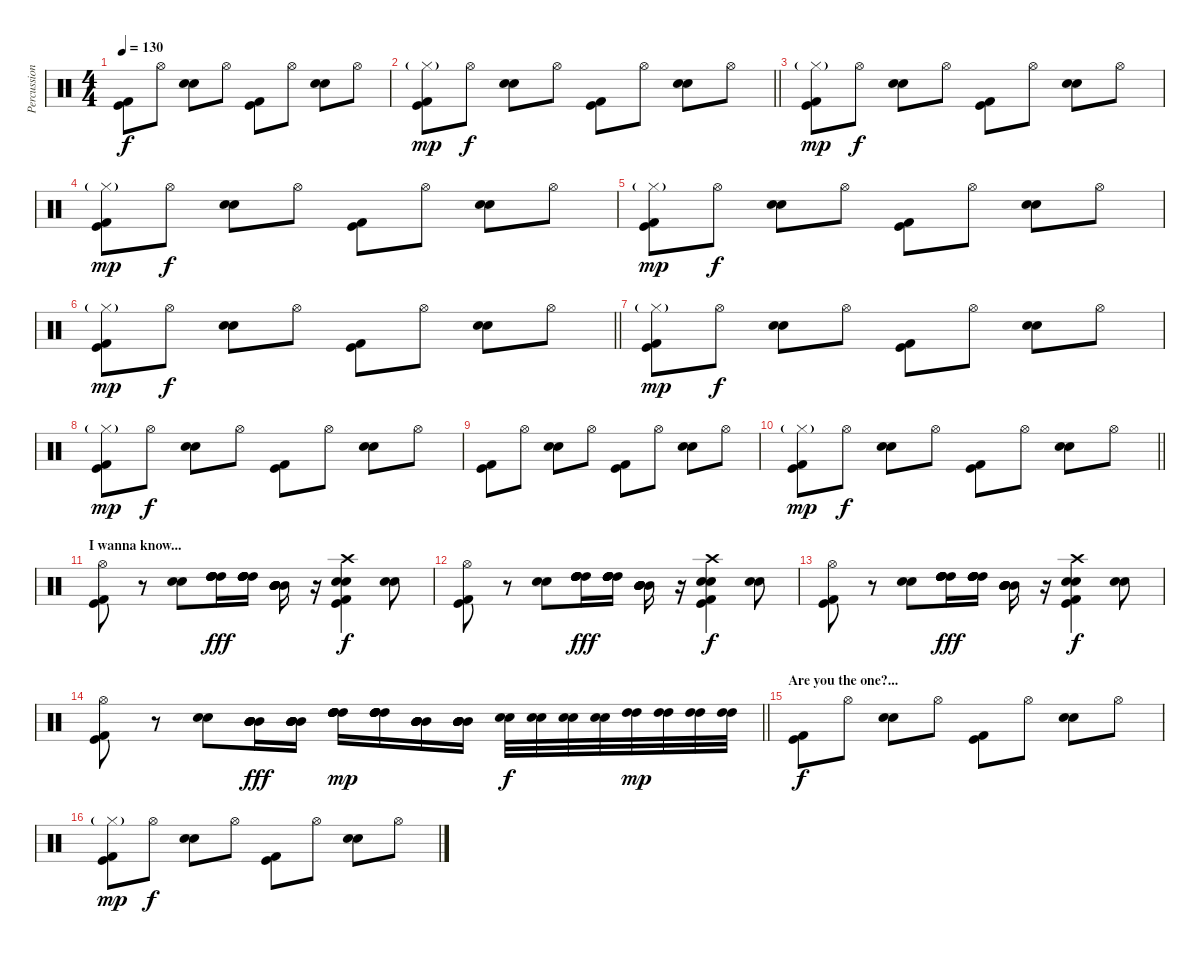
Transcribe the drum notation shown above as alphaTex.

\track ("Percussion" "Percussion") {instrument percussion}
\staff {score}
\articulation defaults
\ts (4 4)
\tempo 130
\clef neutral
\ks c
("Kick (hit) 2" "Kick (hit)").8{dy f} "Hi-Hat (open)".8 ("Electric Snare (hit)" "Snare (hit) 2").8 "Hi-Hat (open)".8 ("Kick (hit) 2" "Kick (hit)").8 "Hi-Hat (open)".8 ("Electric Snare (hit)" "Snare (hit) 2").8 "Hi-Hat (open)".8 |
\barLineRight lightlight
("Kick (hit) 2" "Kick (hit)" "Hi-Hat (closed)"{g}).8{dy mp} "Hi-Hat (open)".8{dy f} ("Electric Snare (hit)" "Snare (hit) 2").8 "Hi-Hat (open)".8 ("Kick (hit) 2" "Kick (hit)").8 "Hi-Hat (open)".8 ("Electric Snare (hit)" "Snare (hit) 2").8 "Hi-Hat (open)".8 |
("Kick (hit) 2" "Kick (hit)" "Hi-Hat (closed)"{g}).8{dy mp} "Hi-Hat (open)".8{dy f} ("Electric Snare (hit)" "Snare (hit) 2").8 "Hi-Hat (open)".8 ("Kick (hit) 2" "Kick (hit)").8 "Hi-Hat (open)".8 ("Electric Snare (hit)" "Snare (hit) 2").8 "Hi-Hat (open)".8 |
("Kick (hit) 2" "Kick (hit)" "Hi-Hat (closed)"{g}).8{dy mp} "Hi-Hat (open)".8{dy f} ("Electric Snare (hit)" "Snare (hit) 2").8 "Hi-Hat (open)".8 ("Kick (hit) 2" "Kick (hit)").8 "Hi-Hat (open)".8 ("Electric Snare (hit)" "Snare (hit) 2").8 "Hi-Hat (open)".8 |
("Kick (hit) 2" "Kick (hit)" "Hi-Hat (closed)"{g}).8{dy mp} "Hi-Hat (open)".8{dy f} ("Electric Snare (hit)" "Snare (hit) 2").8 "Hi-Hat (open)".8 ("Kick (hit) 2" "Kick (hit)").8 "Hi-Hat (open)".8 ("Electric Snare (hit)" "Snare (hit) 2").8 "Hi-Hat (open)".8 |
\barLineRight lightlight
("Kick (hit) 2" "Kick (hit)" "Hi-Hat (closed)"{g}).8{dy mp} "Hi-Hat (open)".8{dy f} ("Electric Snare (hit)" "Snare (hit) 2").8 "Hi-Hat (open)".8 ("Kick (hit) 2" "Kick (hit)").8 "Hi-Hat (open)".8 ("Electric Snare (hit)" "Snare (hit) 2").8 "Hi-Hat (open)".8 |
("Kick (hit) 2" "Kick (hit)" "Hi-Hat (closed)"{g}).8{dy mp} "Hi-Hat (open)".8{dy f} ("Electric Snare (hit)" "Snare (hit) 2").8 "Hi-Hat (open)".8 ("Kick (hit) 2" "Kick (hit)").8 "Hi-Hat (open)".8 ("Electric Snare (hit)" "Snare (hit) 2").8 "Hi-Hat (open)".8 |
("Kick (hit) 2" "Kick (hit)" "Hi-Hat (closed)"{g}).8{dy mp} "Hi-Hat (open)".8{dy f} ("Electric Snare (hit)" "Snare (hit) 2").8 "Hi-Hat (open)".8 ("Kick (hit) 2" "Kick (hit)").8 "Hi-Hat (open)".8 ("Electric Snare (hit)" "Snare (hit) 2").8 "Hi-Hat (open)".8 |
("Kick (hit) 2" "Kick (hit)").8 "Hi-Hat (open)".8 ("Electric Snare (hit)" "Snare (hit) 2").8 "Hi-Hat (open)".8 ("Kick (hit) 2" "Kick (hit)").8 "Hi-Hat (open)".8 ("Electric Snare (hit)" "Snare (hit) 2").8 "Hi-Hat (open)".8 |
\barLineRight lightlight
("Kick (hit) 2" "Kick (hit)" "Hi-Hat (closed)"{g}).8{dy mp} "Hi-Hat (open)".8{dy f} ("Electric Snare (hit)" "Snare (hit) 2").8 "Hi-Hat (open)".8 ("Kick (hit) 2" "Kick (hit)").8 "Hi-Hat (open)".8 ("Electric Snare (hit)" "Snare (hit) 2").8 "Hi-Hat (open)".8 |
\section ("" "I wanna know...")
("Kick (hit) 2" "Kick (hit)" "Hi-Hat (open)").8 r.8 ("Snare (hit) 2" "Electric Snare (hit)").8 ("High Tom (hit)" "High Tom (hit)" "High Tom (hit)" "High Tom (hit)" "High Tom (hit)" "High Tom (hit)").16{dy fff} ("High Tom (hit)" "High Tom (hit)" "High Tom (hit)" "High Tom (hit)" "High Tom (hit)" "High Tom (hit)").16 ("Mid Tom (hit)" "Mid Tom (hit)" "Mid Tom (hit)" "Mid Tom (hit)" "Mid Tom (hit)" "Mid Tom (hit)").16 r.16 ("Kick (hit) 2" "Kick (hit)" "Snare (hit) 2" "Electric Snare (hit)" "Crash high (hit)").4{dy f} ("Snare (hit) 2" "Electric Snare (hit)").8 |
("Kick (hit) 2" "Kick (hit)" "Hi-Hat (open)").8 r.8 ("Snare (hit) 2" "Electric Snare (hit)").8 ("High Tom (hit)" "High Tom (hit)" "High Tom (hit)" "High Tom (hit)" "High Tom (hit)" "High Tom (hit)").16{dy fff} ("High Tom (hit)" "High Tom (hit)" "High Tom (hit)" "High Tom (hit)" "High Tom (hit)" "High Tom (hit)").16 ("Mid Tom (hit)" "Mid Tom (hit)" "Mid Tom (hit)" "Mid Tom (hit)" "Mid Tom (hit)" "Mid Tom (hit)").16 r.16 ("Kick (hit) 2" "Kick (hit)" "Snare (hit) 2" "Electric Snare (hit)" "Crash high (hit)").4{dy f} ("Snare (hit) 2" "Electric Snare (hit)").8 |
("Kick (hit) 2" "Kick (hit)" "Hi-Hat (open)").8 r.8 ("Snare (hit) 2" "Electric Snare (hit)").8 ("High Tom (hit)" "High Tom (hit)" "High Tom (hit)" "High Tom (hit)" "High Tom (hit)" "High Tom (hit)").16{dy fff} ("High Tom (hit)" "High Tom (hit)" "High Tom (hit)" "High Tom (hit)" "High Tom (hit)" "High Tom (hit)").16 ("Mid Tom (hit)" "Mid Tom (hit)" "Mid Tom (hit)" "Mid Tom (hit)" "Mid Tom (hit)" "Mid Tom (hit)").16 r.16 ("Kick (hit) 2" "Kick (hit)" "Snare (hit) 2" "Electric Snare (hit)" "Crash high (hit)").4{dy f} ("Snare (hit) 2" "Electric Snare (hit)").8 |
\barLineRight lightlight
("Kick (hit) 2" "Kick (hit)" "Hi-Hat (open)").8 r.8 ("Snare (hit) 2" "Electric Snare (hit)").8 ("Mid Tom (hit)" "Mid Tom (hit)" "Mid Tom (hit)" "Mid Tom (hit)" "Mid Tom (hit)" "Mid Tom (hit)").16{dy fff} ("Mid Tom (hit)" "Mid Tom (hit)" "Mid Tom (hit)" "Mid Tom (hit)" "Mid Tom (hit)" "Mid Tom (hit)").16 ("High Tom (hit)" "High Tom (hit)" "High Tom (hit)" "High Tom (hit)" "High Tom (hit)" "High Tom (hit)").16{dy mp} ("High Tom (hit)" "High Tom (hit)" "High Tom (hit)" "High Tom (hit)" "High Tom (hit)" "High Tom (hit)").16 ("Mid Tom (hit)" "Mid Tom (hit)" "Mid Tom (hit)" "Mid Tom (hit)" "Mid Tom (hit)" "Mid Tom (hit)").16 ("Mid Tom (hit)" "Mid Tom (hit)" "Mid Tom (hit)" "Mid Tom (hit)" "Mid Tom (hit)" "Mid Tom (hit)").16 ("Snare (hit) 2" "Electric Snare (hit)").32{dy f} ("Snare (hit) 2" "Electric Snare (hit)").32 ("Snare (hit) 2" "Electric Snare (hit)").32 ("Snare (hit) 2" "Electric Snare (hit)").32 ("High Tom (hit)" "High Tom (hit)").32{dy mp} ("High Tom (hit)" "High Tom (hit)").32 ("High Tom (hit)" "High Tom (hit)").32 ("High Tom (hit)" "High Tom (hit)").32 |
\section ("" "Are you the one?...")
("Kick (hit) 2" "Kick (hit)").8{dy f} "Hi-Hat (open)".8 ("Electric Snare (hit)" "Snare (hit) 2").8 "Hi-Hat (open)".8 ("Kick (hit) 2" "Kick (hit)").8 "Hi-Hat (open)".8 ("Electric Snare (hit)" "Snare (hit) 2").8 "Hi-Hat (open)".8 |
("Kick (hit) 2" "Kick (hit)" "Hi-Hat (closed)"{g}).8{dy mp} "Hi-Hat (open)".8{dy f} ("Electric Snare (hit)" "Snare (hit) 2").8 "Hi-Hat (open)".8 ("Kick (hit) 2" "Kick (hit)").8 "Hi-Hat (open)".8 ("Electric Snare (hit)" "Snare (hit) 2").8 "Hi-Hat (open)".8
